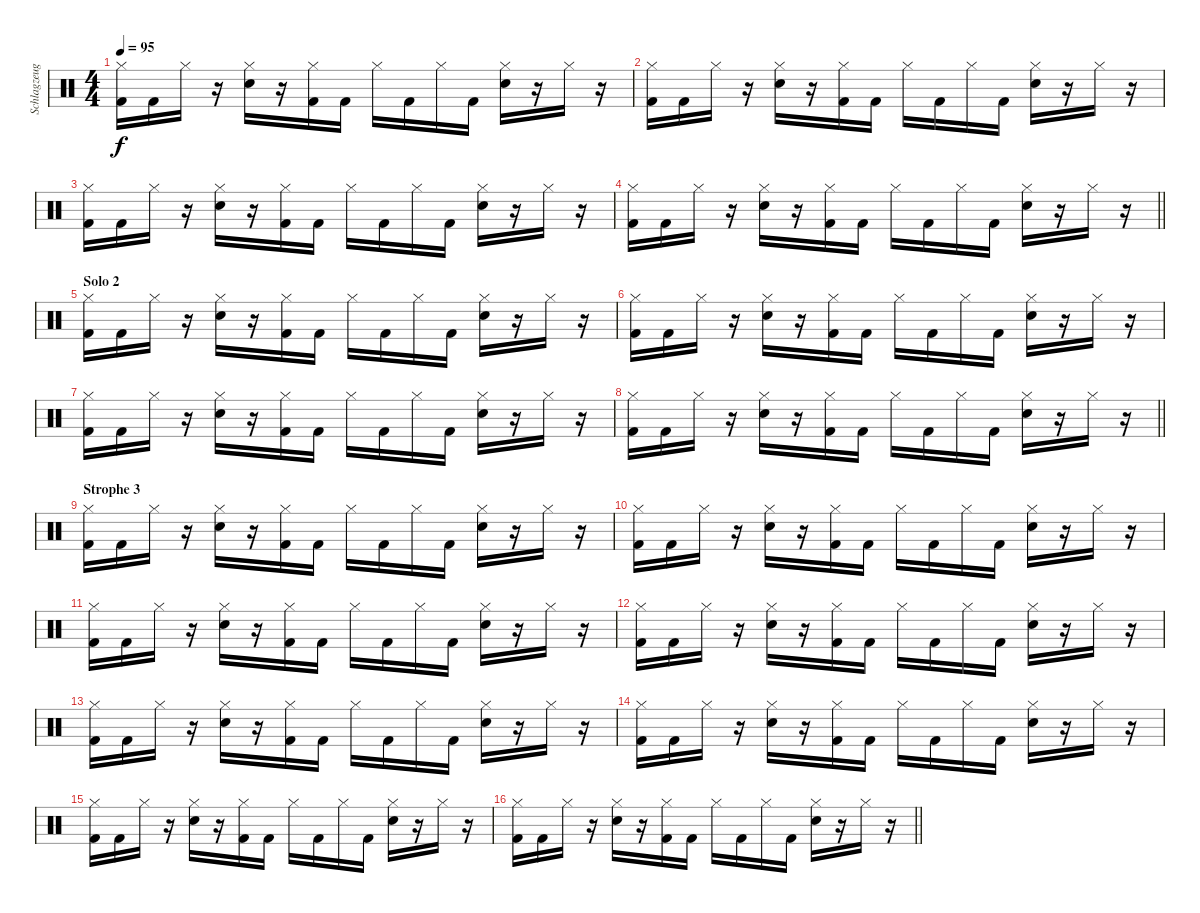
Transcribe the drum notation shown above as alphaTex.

\track ("Schlagzeug" "Schlagzeug") {instrument percussion}
\staff {score}
\articulation defaults
\ts (4 4)
\tempo 95
\clef neutral
\ks c
("Hi-Hat (closed)" "Kick (hit) 2").16{dy f} "Kick (hit) 2".16 "Hi-Hat (closed)".16 r.16 ("Hi-Hat (closed)" "Snare (hit) 2").16 r.16 ("Hi-Hat (closed)" "Kick (hit) 2").16 "Kick (hit) 2".16 "Hi-Hat (closed)".16 "Kick (hit) 2".16 "Hi-Hat (closed)".16 "Kick (hit) 2".16 ("Hi-Hat (closed)" "Snare (hit) 2").16 r.16 "Hi-Hat (closed)".16 r.16 |
("Hi-Hat (closed)" "Kick (hit) 2").16 "Kick (hit) 2".16 "Hi-Hat (closed)".16 r.16 ("Hi-Hat (closed)" "Snare (hit) 2").16 r.16 ("Hi-Hat (closed)" "Kick (hit) 2").16 "Kick (hit) 2".16 "Hi-Hat (closed)".16 "Kick (hit) 2".16 "Hi-Hat (closed)".16 "Kick (hit) 2".16 ("Hi-Hat (closed)" "Snare (hit) 2").16 r.16 "Hi-Hat (closed)".16 r.16 |
("Hi-Hat (closed)" "Kick (hit) 2").16 "Kick (hit) 2".16 "Hi-Hat (closed)".16 r.16 ("Hi-Hat (closed)" "Snare (hit) 2").16 r.16 ("Hi-Hat (closed)" "Kick (hit) 2").16 "Kick (hit) 2".16 "Hi-Hat (closed)".16 "Kick (hit) 2".16 "Hi-Hat (closed)".16 "Kick (hit) 2".16 ("Hi-Hat (closed)" "Snare (hit) 2").16 r.16 "Hi-Hat (closed)".16 r.16 |
\barLineRight lightlight
("Hi-Hat (closed)" "Kick (hit) 2").16 "Kick (hit) 2".16 "Hi-Hat (closed)".16 r.16 ("Hi-Hat (closed)" "Snare (hit) 2").16 r.16 ("Hi-Hat (closed)" "Kick (hit) 2").16 "Kick (hit) 2".16 "Hi-Hat (closed)".16 "Kick (hit) 2".16 "Hi-Hat (closed)".16 "Kick (hit) 2".16 ("Hi-Hat (closed)" "Snare (hit) 2").16 r.16 "Hi-Hat (closed)".16 r.16 |
\section ("" "Solo 2")
("Hi-Hat (closed)" "Kick (hit) 2").16 "Kick (hit) 2".16 "Hi-Hat (closed)".16 r.16 ("Hi-Hat (closed)" "Snare (hit) 2").16 r.16 ("Hi-Hat (closed)" "Kick (hit) 2").16 "Kick (hit) 2".16 "Hi-Hat (closed)".16 "Kick (hit) 2".16 "Hi-Hat (closed)".16 "Kick (hit) 2".16 ("Hi-Hat (closed)" "Snare (hit) 2").16 r.16 "Hi-Hat (closed)".16 r.16 |
("Hi-Hat (closed)" "Kick (hit) 2").16 "Kick (hit) 2".16 "Hi-Hat (closed)".16 r.16 ("Hi-Hat (closed)" "Snare (hit) 2").16 r.16 ("Hi-Hat (closed)" "Kick (hit) 2").16 "Kick (hit) 2".16 "Hi-Hat (closed)".16 "Kick (hit) 2".16 "Hi-Hat (closed)".16 "Kick (hit) 2".16 ("Hi-Hat (closed)" "Snare (hit) 2").16 r.16 "Hi-Hat (closed)".16 r.16 |
("Hi-Hat (closed)" "Kick (hit) 2").16 "Kick (hit) 2".16 "Hi-Hat (closed)".16 r.16 ("Hi-Hat (closed)" "Snare (hit) 2").16 r.16 ("Hi-Hat (closed)" "Kick (hit) 2").16 "Kick (hit) 2".16 "Hi-Hat (closed)".16 "Kick (hit) 2".16 "Hi-Hat (closed)".16 "Kick (hit) 2".16 ("Hi-Hat (closed)" "Snare (hit) 2").16 r.16 "Hi-Hat (closed)".16 r.16 |
\barLineRight lightlight
("Hi-Hat (closed)" "Kick (hit) 2").16 "Kick (hit) 2".16 "Hi-Hat (closed)".16 r.16 ("Hi-Hat (closed)" "Snare (hit) 2").16 r.16 ("Hi-Hat (closed)" "Kick (hit) 2").16 "Kick (hit) 2".16 "Hi-Hat (closed)".16 "Kick (hit) 2".16 "Hi-Hat (closed)".16 "Kick (hit) 2".16 ("Hi-Hat (closed)" "Snare (hit) 2").16 r.16 "Hi-Hat (closed)".16 r.16 |
\section ("" "Strophe 3")
("Hi-Hat (closed)" "Kick (hit) 2").16 "Kick (hit) 2".16 "Hi-Hat (closed)".16 r.16 ("Hi-Hat (closed)" "Snare (hit) 2").16 r.16 ("Hi-Hat (closed)" "Kick (hit) 2").16 "Kick (hit) 2".16 "Hi-Hat (closed)".16 "Kick (hit) 2".16 "Hi-Hat (closed)".16 "Kick (hit) 2".16 ("Hi-Hat (closed)" "Snare (hit) 2").16 r.16 "Hi-Hat (closed)".16 r.16 |
("Hi-Hat (closed)" "Kick (hit) 2").16 "Kick (hit) 2".16 "Hi-Hat (closed)".16 r.16 ("Hi-Hat (closed)" "Snare (hit) 2").16 r.16 ("Hi-Hat (closed)" "Kick (hit) 2").16 "Kick (hit) 2".16 "Hi-Hat (closed)".16 "Kick (hit) 2".16 "Hi-Hat (closed)".16 "Kick (hit) 2".16 ("Hi-Hat (closed)" "Snare (hit) 2").16 r.16 "Hi-Hat (closed)".16 r.16 |
("Hi-Hat (closed)" "Kick (hit) 2").16 "Kick (hit) 2".16 "Hi-Hat (closed)".16 r.16 ("Hi-Hat (closed)" "Snare (hit) 2").16 r.16 ("Hi-Hat (closed)" "Kick (hit) 2").16 "Kick (hit) 2".16 "Hi-Hat (closed)".16 "Kick (hit) 2".16 "Hi-Hat (closed)".16 "Kick (hit) 2".16 ("Hi-Hat (closed)" "Snare (hit) 2").16 r.16 "Hi-Hat (closed)".16 r.16 |
("Hi-Hat (closed)" "Kick (hit) 2").16 "Kick (hit) 2".16 "Hi-Hat (closed)".16 r.16 ("Hi-Hat (closed)" "Snare (hit) 2").16 r.16 ("Hi-Hat (closed)" "Kick (hit) 2").16 "Kick (hit) 2".16 "Hi-Hat (closed)".16 "Kick (hit) 2".16 "Hi-Hat (closed)".16 "Kick (hit) 2".16 ("Hi-Hat (closed)" "Snare (hit) 2").16 r.16 "Hi-Hat (closed)".16 r.16 |
("Hi-Hat (closed)" "Kick (hit) 2").16 "Kick (hit) 2".16 "Hi-Hat (closed)".16 r.16 ("Hi-Hat (closed)" "Snare (hit) 2").16 r.16 ("Hi-Hat (closed)" "Kick (hit) 2").16 "Kick (hit) 2".16 "Hi-Hat (closed)".16 "Kick (hit) 2".16 "Hi-Hat (closed)".16 "Kick (hit) 2".16 ("Hi-Hat (closed)" "Snare (hit) 2").16 r.16 "Hi-Hat (closed)".16 r.16 |
("Hi-Hat (closed)" "Kick (hit) 2").16 "Kick (hit) 2".16 "Hi-Hat (closed)".16 r.16 ("Hi-Hat (closed)" "Snare (hit) 2").16 r.16 ("Hi-Hat (closed)" "Kick (hit) 2").16 "Kick (hit) 2".16 "Hi-Hat (closed)".16 "Kick (hit) 2".16 "Hi-Hat (closed)".16 "Kick (hit) 2".16 ("Hi-Hat (closed)" "Snare (hit) 2").16 r.16 "Hi-Hat (closed)".16 r.16 |
("Hi-Hat (closed)" "Kick (hit) 2").16 "Kick (hit) 2".16 "Hi-Hat (closed)".16 r.16 ("Hi-Hat (closed)" "Snare (hit) 2").16 r.16 ("Hi-Hat (closed)" "Kick (hit) 2").16 "Kick (hit) 2".16 "Hi-Hat (closed)".16 "Kick (hit) 2".16 "Hi-Hat (closed)".16 "Kick (hit) 2".16 ("Hi-Hat (closed)" "Snare (hit) 2").16 r.16 "Hi-Hat (closed)".16 r.16 |
\barLineRight lightlight
("Hi-Hat (closed)" "Kick (hit) 2").16 "Kick (hit) 2".16 "Hi-Hat (closed)".16 r.16 ("Hi-Hat (closed)" "Snare (hit) 2").16 r.16 ("Hi-Hat (closed)" "Kick (hit) 2").16 "Kick (hit) 2".16 "Hi-Hat (closed)".16 "Kick (hit) 2".16 "Hi-Hat (closed)".16 "Kick (hit) 2".16 ("Hi-Hat (closed)" "Snare (hit) 2").16 r.16 "Hi-Hat (closed)".16 r.16
